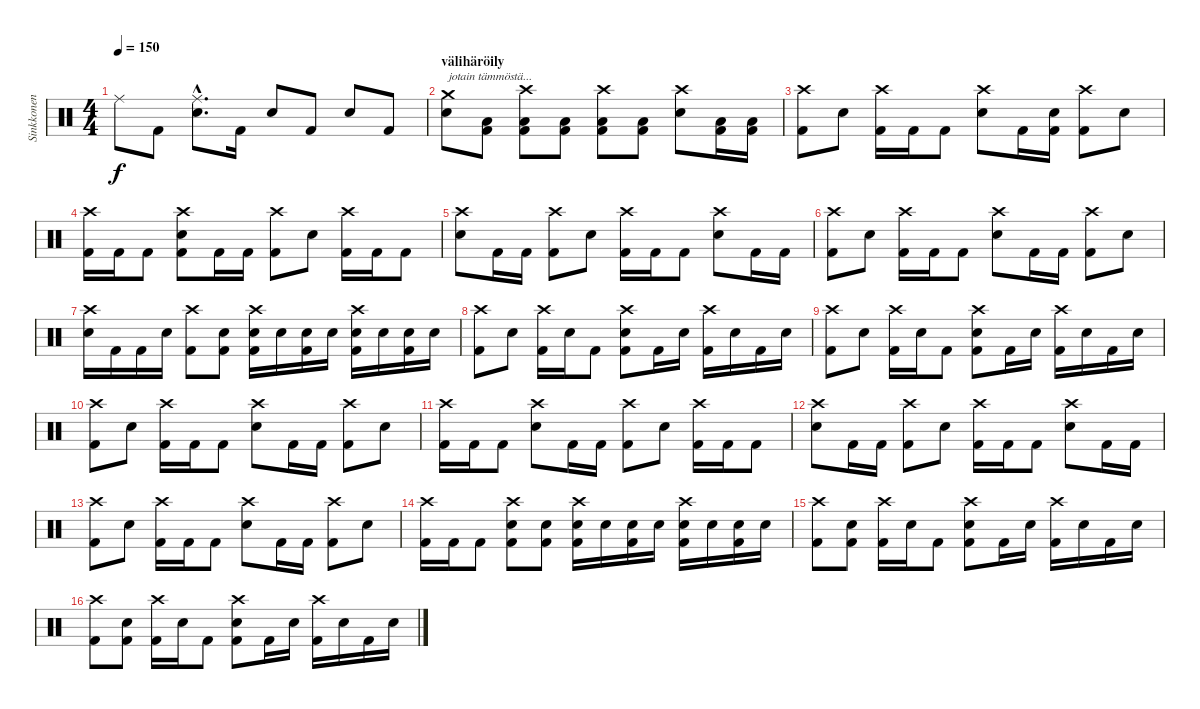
\track ("Sinkkonen" "Sinkkonen") {instrument percussion}
\staff {score}
\articulation defaults
\ts (4 4)
\tempo 150
\clef neutral
\ks c "Ride (middle)".8{dy f} "Kick (hit) 2".8
("Ride (middle)"{hac} "Snare (hit) 2"{hac}).8{d} "Kick (hit) 2".16 "Snare (hit) 2".8 "Kick (hit) 2".8 "Snare (hit) 2".8 "Kick (hit) 2".8 |
\section ("" "välihäröily")
("Crash medium (hit)" "Snare (hit) 2").8{txt "jotain tämmöstä..."} ("Kick (hit) 2" "Low Floor Tom (hit)").8 ("Kick (hit) 2" "Crash high (hit)" "Low Floor Tom (hit)").8 ("Kick (hit) 2" "Low Floor Tom (hit)").8 ("Kick (hit) 2" "Crash high (hit)" "Low Floor Tom (hit)").8 ("Kick (hit) 2" "Low Floor Tom (hit)").8 ("Crash high (hit)" "Snare (hit) 2").8 ("Kick (hit) 2" "Low Floor Tom (hit)").16 ("Kick (hit) 2" "Low Floor Tom (hit)").16 |
("Kick (hit) 2" "Crash high (hit)").8 "Snare (hit) 2".8 ("Kick (hit) 2" "Crash high (hit)").16 "Kick (hit) 2".16 "Kick (hit) 2".8 ("Crash high (hit)" "Snare (hit) 2").8 "Kick (hit) 2".16 ("Kick (hit) 2" "Snare (hit) 2").16 ("Kick (hit) 2" "Crash high (hit)").8 "Snare (hit) 2".8 |
("Kick (hit) 2" "Crash high (hit)").16 "Kick (hit) 2".16 "Kick (hit) 2".8 ("Kick (hit) 2" "Crash high (hit)" "Snare (hit) 2").8 "Kick (hit) 2".16 "Kick (hit) 2".16 ("Kick (hit) 2" "Crash high (hit)").8 "Snare (hit) 2".8 ("Kick (hit) 2" "Crash high (hit)").16 "Kick (hit) 2".16 "Kick (hit) 2".8 |
("Crash high (hit)" "Snare (hit) 2").8 "Kick (hit) 2".16 "Kick (hit) 2".16 ("Kick (hit) 2" "Crash high (hit)").8 "Snare (hit) 2".8 ("Kick (hit) 2" "Crash high (hit)").16 "Kick (hit) 2".16 "Kick (hit) 2".8 ("Crash high (hit)" "Snare (hit) 2").8 "Kick (hit) 2".16 "Kick (hit) 2".16 |
("Kick (hit) 2" "Crash high (hit)").8 "Snare (hit) 2".8 ("Kick (hit) 2" "Crash high (hit)").16 "Kick (hit) 2".16 "Kick (hit) 2".8 ("Crash high (hit)" "Snare (hit) 2").8 "Kick (hit) 2".16 "Kick (hit) 2".16 ("Kick (hit) 2" "Crash high (hit)").8 "Snare (hit) 2".8 |
("Crash high (hit)" "Snare (hit) 2").16 "Kick (hit) 2".16 "Kick (hit) 2".16 "Snare (hit) 2".16 ("Kick (hit) 2" "Crash high (hit)").8 ("Kick (hit) 2" "Snare (hit) 2").8 ("Kick (hit) 2" "Crash high (hit)" "Snare (hit) 2").16 "Snare (hit) 2".16 ("Kick (hit) 2" "Snare (hit) 2").16 "Snare (hit) 2".16 ("Kick (hit) 2" "Crash high (hit)" "Snare (hit) 2").16 "Snare (hit) 2".16 ("Kick (hit) 2" "Snare (hit) 2").16 "Snare (hit) 2".16 |
("Kick (hit) 2" "Crash high (hit)").8 "Snare (hit) 2".8 ("Kick (hit) 2" "Crash high (hit)").16 "Snare (hit) 2".16 "Kick (hit) 2".8 ("Kick (hit) 2" "Crash high (hit)" "Snare (hit) 2").8 "Kick (hit) 2".16 "Snare (hit) 2".16 ("Kick (hit) 2" "Crash high (hit)").16 "Snare (hit) 2".16 "Kick (hit) 2".16 "Snare (hit) 2".16 |
("Kick (hit) 2" "Crash high (hit)").8 "Snare (hit) 2".8 ("Kick (hit) 2" "Crash high (hit)").16 "Snare (hit) 2".16 "Kick (hit) 2".8 ("Kick (hit) 2" "Crash high (hit)" "Snare (hit) 2").8 "Kick (hit) 2".16 "Snare (hit) 2".16 ("Kick (hit) 2" "Crash high (hit)").16 "Snare (hit) 2".16 "Kick (hit) 2".16 "Snare (hit) 2".16 |
("Kick (hit) 2" "Crash high (hit)").8 "Snare (hit) 2".8 ("Kick (hit) 2" "Crash high (hit)").16 "Kick (hit) 2".16 "Kick (hit) 2".8 ("Crash high (hit)" "Snare (hit) 2").8 "Kick (hit) 2".16 "Kick (hit) 2".16 ("Kick (hit) 2" "Crash high (hit)").8 "Snare (hit) 2".8 |
("Kick (hit) 2" "Crash high (hit)").16 "Kick (hit) 2".16 "Kick (hit) 2".8 ("Crash high (hit)" "Snare (hit) 2").8 "Kick (hit) 2".16 "Kick (hit) 2".16 ("Kick (hit) 2" "Crash high (hit)").8 "Snare (hit) 2".8 ("Kick (hit) 2" "Crash high (hit)").16 "Kick (hit) 2".16 "Kick (hit) 2".8 |
("Crash high (hit)" "Snare (hit) 2").8 "Kick (hit) 2".16 "Kick (hit) 2".16 ("Kick (hit) 2" "Crash high (hit)").8 "Snare (hit) 2".8 ("Kick (hit) 2" "Crash high (hit)").16 "Kick (hit) 2".16 "Kick (hit) 2".8 ("Crash high (hit)" "Snare (hit) 2").8 "Kick (hit) 2".16 "Kick (hit) 2".16 |
("Kick (hit) 2" "Crash high (hit)").8 "Snare (hit) 2".8 ("Kick (hit) 2" "Crash high (hit)").16 "Kick (hit) 2".16 "Kick (hit) 2".8 ("Crash high (hit)" "Snare (hit) 2").8 "Kick (hit) 2".16 "Kick (hit) 2".16 ("Kick (hit) 2" "Crash high (hit)").8 "Snare (hit) 2".8 |
("Kick (hit) 2" "Crash high (hit)").16 "Kick (hit) 2".16 "Kick (hit) 2".8 ("Kick (hit) 2" "Crash high (hit)" "Snare (hit) 2").8 ("Kick (hit) 2" "Snare (hit) 2").8 ("Kick (hit) 2" "Crash high (hit)" "Snare (hit) 2").16 "Snare (hit) 2".16 ("Kick (hit) 2" "Snare (hit) 2").16 "Snare (hit) 2".16 ("Kick (hit) 2" "Crash high (hit)" "Snare (hit) 2").16 "Snare (hit) 2".16 ("Kick (hit) 2" "Snare (hit) 2").16 "Snare (hit) 2".16 |
("Kick (hit) 2" "Crash high (hit)").8 ("Kick (hit) 2" "Snare (hit) 2").8 ("Kick (hit) 2" "Crash high (hit)").16 "Snare (hit) 2".16 "Kick (hit) 2".8 ("Kick (hit) 2" "Crash high (hit)" "Snare (hit) 2").8 "Kick (hit) 2".16 "Snare (hit) 2".16 ("Kick (hit) 2" "Crash high (hit)").16 "Snare (hit) 2".16 "Kick (hit) 2".16 "Snare (hit) 2".16 |
("Kick (hit) 2" "Crash high (hit)").8 ("Kick (hit) 2" "Snare (hit) 2").8 ("Kick (hit) 2" "Crash high (hit)").16 "Snare (hit) 2".16 "Kick (hit) 2".8 ("Kick (hit) 2" "Crash high (hit)" "Snare (hit) 2").8 "Kick (hit) 2".16 "Snare (hit) 2".16 ("Kick (hit) 2" "Crash high (hit)").16 "Snare (hit) 2".16 "Kick (hit) 2".16 "Snare (hit) 2".16
